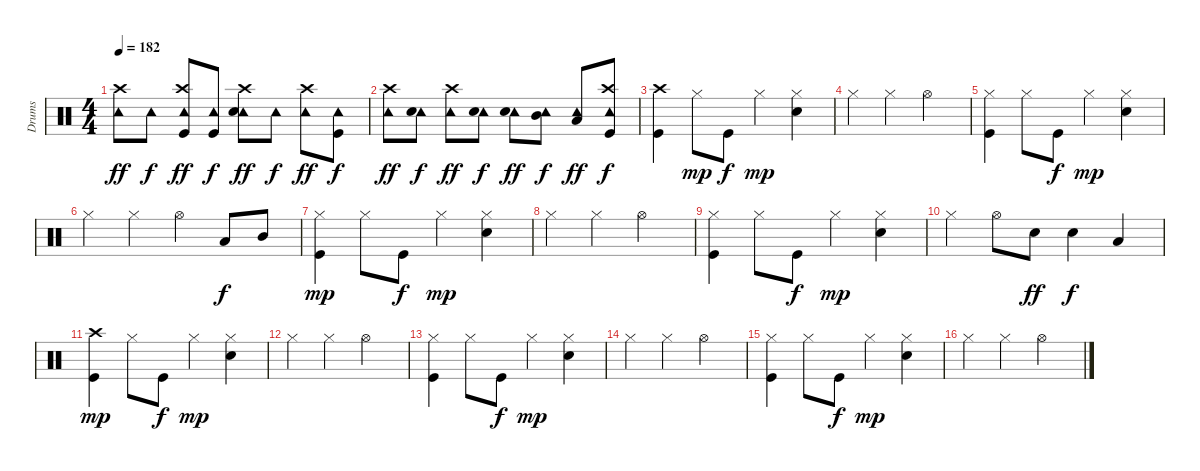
\track ("Drums" "Drums") {instrument percussion}
\staff {score}
\articulation defaults
\ts (4 4)
\tempo 182
\clef neutral
\ks c
("Tambourine (hit)" "Crash high (hit)").8{dy ff} "Tambourine (hit)".8{dy f} ("Tambourine (hit)" "Crash high (hit)" "Kick (hit)").8{dy ff} ("Tambourine (hit)" "Kick (hit)").8{dy f} ("Tambourine (hit)" "Crash high (hit)" "Electric Snare (hit)").8{dy ff} "Tambourine (hit)".8{dy f} ("Tambourine (hit)" "Crash high (hit)").8{dy ff} ("Tambourine (hit)" "Kick (hit)").8{dy f} |
("Tambourine (hit)" "Crash high (hit)").8{dy ff} ("Tambourine (hit)" "Electric Snare (hit)").8{dy f} ("Tambourine (hit)" "Crash high (hit)").8{dy ff} ("Tambourine (hit)" "Electric Snare (hit)").8{dy f} ("Tambourine (hit)" "Electric Snare (hit)").8{dy ff} ("Tambourine (hit)" "Mid Tom (hit)").8{dy f} ("Tambourine (hit)" "Low Tom (hit)").8{dy ff} ("Tambourine (hit)" "Crash high (hit)" "Kick (hit)").8{dy f} |
("Crash high (hit)" "Kick (hit)").4 "Hi-Hat (closed)".8{dy mp} "Kick (hit)".8{dy f} "Hi-Hat (closed)".4{dy mp} ("Hi-Hat (closed)" "Electric Snare (hit)").4 |
"Hi-Hat (closed)".4 "Hi-Hat (closed)".4 "Hi-Hat (open)".2 |
("Hi-Hat (closed)" "Kick (hit)").4 "Hi-Hat (closed)".8 "Kick (hit)".8{dy f} "Hi-Hat (closed)".4{dy mp} ("Hi-Hat (closed)" "Electric Snare (hit)").4 |
"Hi-Hat (closed)".4 "Hi-Hat (closed)".4 "Hi-Hat (open)".4 "Low Tom (hit)".8{dy f} "Mid Tom (hit)".8 |
("Hi-Hat (closed)" "Kick (hit)").4{dy mp} "Hi-Hat (closed)".8 "Kick (hit)".8{dy f} "Hi-Hat (closed)".4{dy mp} ("Hi-Hat (closed)" "Electric Snare (hit)").4 |
"Hi-Hat (closed)".4 "Hi-Hat (closed)".4 "Hi-Hat (open)".2 |
("Hi-Hat (closed)" "Kick (hit)").4 "Hi-Hat (closed)".8 "Kick (hit)".8{dy f} "Hi-Hat (closed)".4{dy mp} ("Hi-Hat (closed)" "Electric Snare (hit)").4 |
"Hi-Hat (closed)".4 "Hi-Hat (open)".8 "Electric Snare (hit)".8{dy ff} "Electric Snare (hit)".4{dy f} "Low Tom (hit)".4 |
("Crash high (hit)" "Kick (hit)").4{dy mp} "Hi-Hat (closed)".8 "Kick (hit)".8{dy f} "Hi-Hat (closed)".4{dy mp} ("Hi-Hat (closed)" "Electric Snare (hit)").4 |
"Hi-Hat (closed)".4 "Hi-Hat (closed)".4 "Hi-Hat (open)".2 |
("Hi-Hat (closed)" "Kick (hit)").4 "Hi-Hat (closed)".8 "Kick (hit)".8{dy f} "Hi-Hat (closed)".4{dy mp} ("Hi-Hat (closed)" "Electric Snare (hit)").4 |
"Hi-Hat (closed)".4 "Hi-Hat (closed)".4 "Hi-Hat (open)".2 |
("Hi-Hat (closed)" "Kick (hit)").4 "Hi-Hat (closed)".8 "Kick (hit)".8{dy f} "Hi-Hat (closed)".4{dy mp} ("Hi-Hat (closed)" "Electric Snare (hit)").4 |
"Hi-Hat (closed)".4 "Hi-Hat (closed)".4 "Hi-Hat (open)".2
